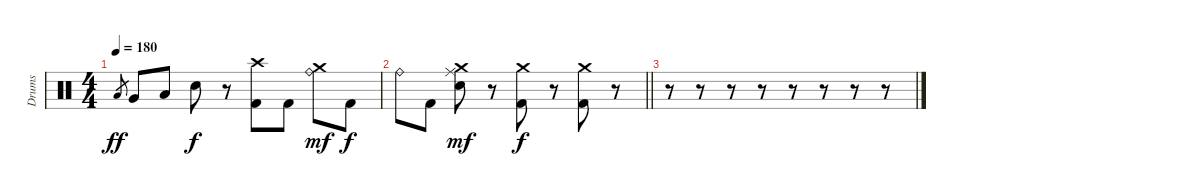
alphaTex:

\track ("Drums" "Drums") {instrument percussion}
\staff {score}
\articulation defaults
\ts (4 4)
\tempo 180
\clef neutral
\ks c "Low Tom (hit)".8{gr dy ff} "Very Low Tom (hit)".8 "Low Floor Tom (hit)".8 "Electric Snare (hit)".8{dy f}
r.8 ("Crash high (hit)" "Kick (hit) 2").8 "Kick (hit) 2".8 ("Ride (bell)" "Crash medium (hit)").8{dy mf} "Kick (hit) 2".8{dy f} |
\barLineRight lightlight "Ride (bell)".8 "Kick (hit) 2".8
("Electric Snare (hit)" "Ride (middle)" "Crash medium (hit)").8{dy mf} r.8 ("Kick (hit) 2" "Crash medium (hit)").8{dy f} r.8 ("Kick (hit) 2" "Crash medium (hit)").8 r.8 |
r.8{volume 0} r.8 r.8 r.8 r.8 r.8 r.8 r.8
